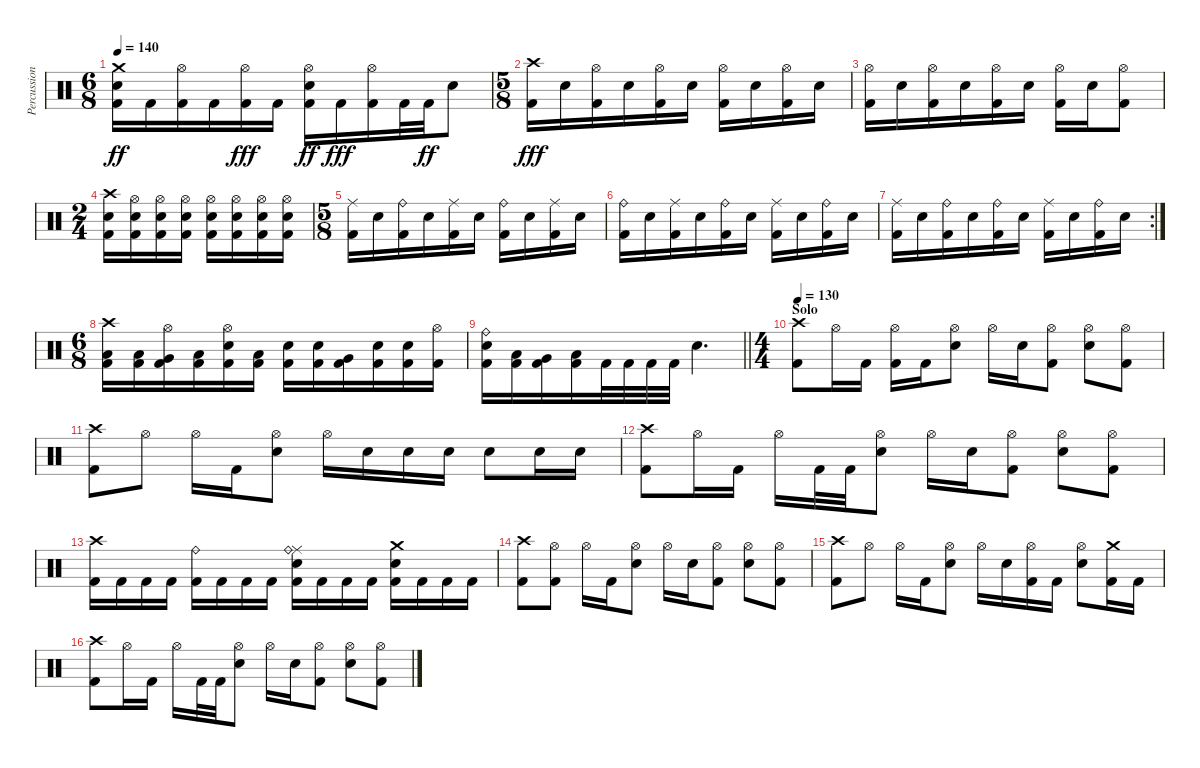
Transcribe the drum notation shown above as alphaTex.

\track ("Percussion" "Percussion") {instrument percussion}
\staff {score}
\articulation defaults
\ts (6 8)
\tempo 140
\clef neutral
\ks c
("Crash medium (hit)" "Electric Snare (hit)" "Kick (hit) 2").16{dy ff} "Kick (hit) 2".16 ("Hi-Hat (open)" "Kick (hit) 2").16 "Kick (hit) 2".16 ("Hi-Hat (open)" "Kick (hit) 2").16{dy fff} "Kick (hit) 2".16 ("Hi-Hat (open)" "Electric Snare (hit)" "Kick (hit) 2").16{dy ff} "Kick (hit) 2".16{dy fff} ("Hi-Hat (open)" "Kick (hit) 2").16 "Kick (hit) 2".32 "Kick (hit) 2".32{dy ff} "Electric Snare (hit)".8 |
\ts (5 8)
("Crash high (hit)" "Kick (hit) 2").16{dy fff} "Electric Snare (hit)".16 ("Hi-Hat (open)" "Kick (hit) 2").16 "Electric Snare (hit)".16 ("Hi-Hat (open)" "Kick (hit) 2").16 "Electric Snare (hit)".16 ("Hi-Hat (open)" "Kick (hit) 2").16 "Electric Snare (hit)".16 ("Hi-Hat (open)" "Kick (hit) 2").16 "Electric Snare (hit)".16 |
("Hi-Hat (open)" "Kick (hit) 2").16 "Electric Snare (hit)".16 ("Hi-Hat (open)" "Kick (hit) 2").16 "Electric Snare (hit)".16 ("Hi-Hat (open)" "Kick (hit) 2").16 "Electric Snare (hit)".16 ("Hi-Hat (open)" "Kick (hit) 2").16 "Electric Snare (hit)".16 ("Hi-Hat (open)" "Kick (hit) 2").8 |
\ts (2 4)
("Crash high (hit)" "Electric Snare (hit)" "Kick (hit) 2").16 ("Hi-Hat (open)" "Electric Snare (hit)" "Kick (hit) 2").16 ("Hi-Hat (open)" "Electric Snare (hit)" "Kick (hit) 2").16 ("Hi-Hat (open)" "Electric Snare (hit)" "Kick (hit) 2").16 ("Hi-Hat (open)" "Electric Snare (hit)" "Kick (hit) 2").16 ("Hi-Hat (open)" "Electric Snare (hit)" "Kick (hit) 2").16 ("Hi-Hat (open)" "Electric Snare (hit)" "Kick (hit) 2").16 ("Hi-Hat (open)" "Electric Snare (hit)" "Kick (hit) 2").16 |
\ts (5 8)
("Ride (middle)" "Kick (hit) 2").16 "Electric Snare (hit)".16 ("Ride (bell)" "Kick (hit) 2").16 "Electric Snare (hit)".16 ("Ride (middle)" "Kick (hit) 2").16 "Electric Snare (hit)".16 ("Ride (bell)" "Kick (hit) 2").16 "Electric Snare (hit)".16 ("Ride (middle)" "Kick (hit) 2").16 "Electric Snare (hit)".16 |
("Ride (bell)" "Kick (hit) 2").16 "Electric Snare (hit)".16 ("Ride (middle)" "Kick (hit) 2").16 "Electric Snare (hit)".16 ("Ride (bell)" "Kick (hit) 2").16 "Electric Snare (hit)".16 ("Ride (middle)" "Kick (hit) 2").16 "Electric Snare (hit)".16 ("Ride (bell)" "Kick (hit) 2").16 "Electric Snare (hit)".16 |
\rc 2
("Ride (middle)" "Kick (hit) 2").16 "Electric Snare (hit)".16 ("Ride (bell)" "Kick (hit) 2").16 "Electric Snare (hit)".16 ("Ride (bell)" "Kick (hit) 2").16 "Electric Snare (hit)".16 ("Ride (middle)" "Kick (hit) 2").16 "Electric Snare (hit)".16 ("Ride (bell)" "Kick (hit) 2").16 "Electric Snare (hit)".16 |
\ts (6 8)
("Crash high (hit)" "Low Tom (hit)" "Kick (hit) 2").16 ("Low Tom (hit)" "Kick (hit) 2").16 ("Hi-Hat (open)" "Very Low Tom (hit)" "Kick (hit) 2").16 ("Low Floor Tom (hit)" "Kick (hit) 2").16 ("Hi-Hat (open)" "Electric Snare (hit)" "Kick (hit) 2").16 ("Low Tom (hit)" "Kick (hit) 2").16 ("Electric Snare (hit)" "Kick (hit) 2").16 ("Electric Snare (hit)" "Kick (hit) 2").16 ("Very Low Tom (hit)" "Kick (hit) 2").16 ("Electric Snare (hit)" "Kick (hit) 2").16 ("Electric Snare (hit)" "Kick (hit) 2").16 ("Hi-Hat (open)" "Kick (hit) 2").16 |
\barLineRight lightlight
("Ride (bell)" "Electric Snare (hit)" "Kick (hit) 2").16 ("Low Tom (hit)" "Kick (hit) 2").16 ("Very Low Tom (hit)" "Kick (hit) 2").16 ("Low Floor Tom (hit)" "Kick (hit) 2").16 "Kick (hit) 2".32 "Kick (hit) 2".32 "Kick (hit) 2".32 "Kick (hit) 2".32 "Electric Snare (hit)".4{d} |
\ts (4 4)
\section ("" "Solo")
\tempo 130
("Crash high (hit)" "Kick (hit) 2").8 "Hi-Hat (open)".16 "Kick (hit) 2".16 ("Hi-Hat (open)" "Kick (hit) 2").16 "Kick (hit) 2".16 ("Hi-Hat (open)" "Electric Snare (hit)").8 "Hi-Hat (open)".16 "Electric Snare (hit)".16 ("Hi-Hat (open)" "Kick (hit) 2").8 ("Hi-Hat (open)" "Electric Snare (hit)").8 ("Hi-Hat (open)" "Kick (hit) 2").8 |
("Crash high (hit)" "Kick (hit) 2").8 "Hi-Hat (open)".8 "Hi-Hat (open)".16 "Kick (hit) 2".16 ("Hi-Hat (open)" "Electric Snare (hit)").8 "Hi-Hat (open)".16 "Electric Snare (hit)".16 "Electric Snare (hit)".16 "Electric Snare (hit)".16 "Electric Snare (hit)".8 "Electric Snare (hit)".16 "Electric Snare (hit)".16 |
("Crash high (hit)" "Kick (hit) 2").8 "Hi-Hat (open)".16 "Kick (hit) 2".16 "Hi-Hat (open)".16 "Kick (hit) 2".32 "Kick (hit) 2".32 ("Hi-Hat (open)" "Electric Snare (hit)").8 "Hi-Hat (open)".16 "Electric Snare (hit)".16 ("Hi-Hat (open)" "Kick (hit) 2").8 ("Hi-Hat (open)" "Electric Snare (hit)").8 ("Hi-Hat (open)" "Kick (hit) 2").8 |
("Crash high (hit)" "Kick (hit) 2").16 "Kick (hit) 2".16 "Kick (hit) 2".16 "Kick (hit) 2".16 ("Ride (bell)" "Kick (hit) 2").16 "Kick (hit) 2".16 "Kick (hit) 2".16 "Kick (hit) 2".16 ("Ride (middle)" "Ride (bell)" "Electric Snare (hit)" "Kick (hit) 2").16 "Kick (hit) 2".16 "Kick (hit) 2".16 "Kick (hit) 2".16 ("Crash medium (hit)" "Electric Snare (hit)" "Kick (hit) 2").16 "Kick (hit) 2".16 "Kick (hit) 2".16 "Kick (hit) 2".16 |
("Crash high (hit)" "Kick (hit) 2").8 ("Hi-Hat (open)" "Kick (hit) 2").8 "Hi-Hat (open)".16 "Kick (hit) 2".16 ("Hi-Hat (open)" "Electric Snare (hit)").8 "Hi-Hat (open)".16 "Electric Snare (hit)".16 ("Hi-Hat (open)" "Kick (hit) 2").8 ("Hi-Hat (open)" "Electric Snare (hit)").8 ("Hi-Hat (open)" "Kick (hit) 2").8 |
("Crash high (hit)" "Kick (hit) 2").8 "Hi-Hat (open)".8 "Hi-Hat (open)".16 "Kick (hit) 2".16 ("Hi-Hat (open)" "Electric Snare (hit)").8 "Hi-Hat (open)".16 "Electric Snare (hit)".16 ("Hi-Hat (open)" "Kick (hit) 2").16 "Kick (hit) 2".16 ("Hi-Hat (open)" "Electric Snare (hit)").8 ("Crash medium (hit)" "Kick (hit) 2").16 "Kick (hit) 2".16 |
("Crash high (hit)" "Kick (hit) 2").8 "Hi-Hat (open)".16 "Kick (hit) 2".16 "Hi-Hat (open)".16 "Kick (hit) 2".32 "Kick (hit) 2".32 ("Hi-Hat (open)" "Electric Snare (hit)").8 "Hi-Hat (open)".16 "Electric Snare (hit)".16 ("Hi-Hat (open)" "Kick (hit) 2").8 ("Hi-Hat (open)" "Electric Snare (hit)").8 ("Hi-Hat (open)" "Kick (hit) 2").8
